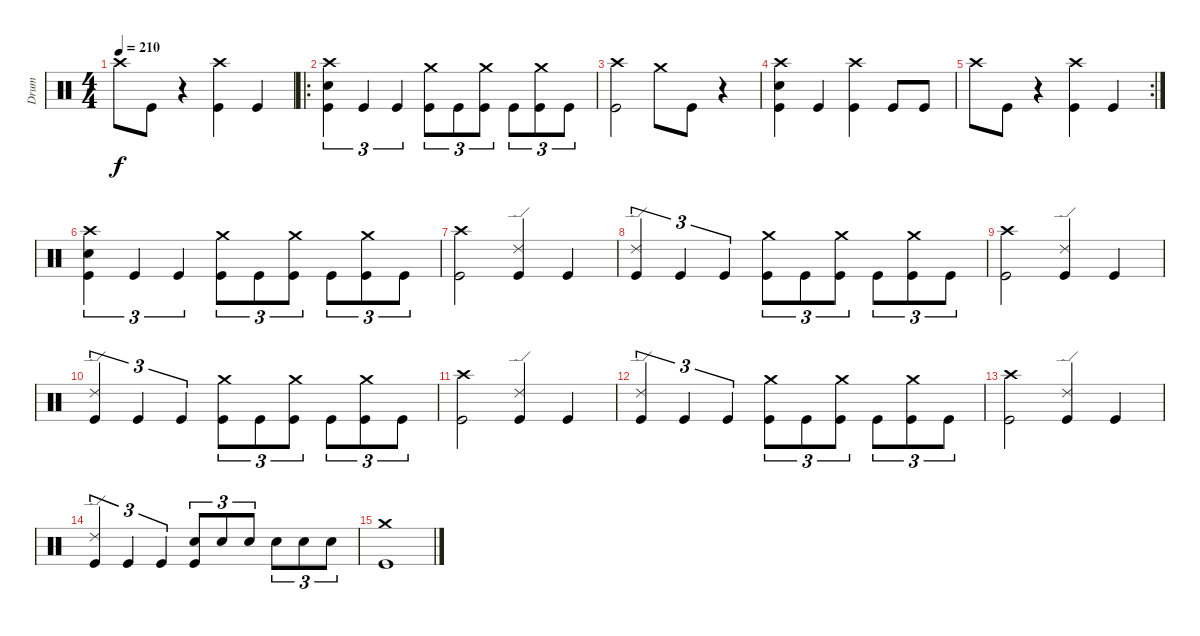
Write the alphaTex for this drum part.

\track ("Drum" "Drum") {instrument percussion}
\staff {score}
\articulation defaults
\ts (4 4)
\tempo 210
\clef neutral
\ks c "Crash high (hit)".8{dy f} "Kick (hit)".8
r.4 ("Crash high (hit)" "Kick (hit)").4 "Kick (hit)".4 |
\ro
("Crash high (hit)" "Snare (hit) 2" "Kick (hit)").4{tu (3 2)} "Kick (hit)".4{tu (3 2)} "Kick (hit)".4{tu (3 2)} ("Crash medium (hit)" "Kick (hit)").8{tu (3 2)} "Kick (hit)".8{tu (3 2)} ("Crash medium (hit)" "Kick (hit)").8{tu (3 2)} "Kick (hit)".8{tu (3 2)} ("Crash medium (hit)" "Kick (hit)").8{tu (3 2)} "Kick (hit)".8{tu (3 2)} |
("Crash high (hit)" "Kick (hit)").2 "Crash medium (hit)".8 "Kick (hit)".8 r.4 |
("Crash high (hit)" "Snare (hit) 2" "Kick (hit)").4 "Kick (hit)".4 ("Crash high (hit)" "Kick (hit)").4 "Kick (hit)".8 "Kick (hit)".8 |
\rc 2 "Crash high (hit)".8 "Kick (hit)".8
r.4 ("Crash high (hit)" "Kick (hit)").4 "Kick (hit)".4 |
("Crash high (hit)" "Snare (hit) 2" "Kick (hit)").4{tu (3 2)} "Kick (hit)".4{tu (3 2)} "Kick (hit)".4{tu (3 2)} ("Crash medium (hit)" "Kick (hit)").8{tu (3 2)} "Kick (hit)".8{tu (3 2)} ("Crash medium (hit)" "Kick (hit)").8{tu (3 2)} "Kick (hit)".8{tu (3 2)} ("Crash medium (hit)" "Kick (hit)").8{tu (3 2)} "Kick (hit)".8{tu (3 2)} |
("Crash high (hit)" "Kick (hit)").2 ("Ride (edge) 2" "Kick (hit)").4 "Kick (hit)".4 |
("Ride (edge) 2" "Kick (hit)").4{tu (3 2)} "Kick (hit)".4{tu (3 2)} "Kick (hit)".4{tu (3 2)} ("Crash medium (hit)" "Kick (hit)").8{tu (3 2)} "Kick (hit)".8{tu (3 2)} ("Crash medium (hit)" "Kick (hit)").8{tu (3 2)} "Kick (hit)".8{tu (3 2)} ("Crash medium (hit)" "Kick (hit)").8{tu (3 2)} "Kick (hit)".8{tu (3 2)} |
("Crash high (hit)" "Kick (hit)").2 ("Ride (edge) 2" "Kick (hit)").4 "Kick (hit)".4 |
("Ride (edge) 2" "Kick (hit)").4{tu (3 2)} "Kick (hit)".4{tu (3 2)} "Kick (hit)".4{tu (3 2)} ("Crash medium (hit)" "Kick (hit)").8{tu (3 2)} "Kick (hit)".8{tu (3 2)} ("Crash medium (hit)" "Kick (hit)").8{tu (3 2)} "Kick (hit)".8{tu (3 2)} ("Crash medium (hit)" "Kick (hit)").8{tu (3 2)} "Kick (hit)".8{tu (3 2)} |
("Crash high (hit)" "Kick (hit)").2 ("Ride (edge) 2" "Kick (hit)").4 "Kick (hit)".4 |
("Ride (edge) 2" "Kick (hit)").4{tu (3 2)} "Kick (hit)".4{tu (3 2)} "Kick (hit)".4{tu (3 2)} ("Crash medium (hit)" "Kick (hit)").8{tu (3 2)} "Kick (hit)".8{tu (3 2)} ("Crash medium (hit)" "Kick (hit)").8{tu (3 2)} "Kick (hit)".8{tu (3 2)} ("Crash medium (hit)" "Kick (hit)").8{tu (3 2)} "Kick (hit)".8{tu (3 2)} |
("Crash high (hit)" "Kick (hit)").2 ("Ride (edge) 2" "Kick (hit)").4 "Kick (hit)".4 |
("Ride (edge) 2" "Kick (hit)").4{tu (3 2)} "Kick (hit)".4{tu (3 2)} "Kick (hit)".4{tu (3 2)} ("Snare (hit) 2" "Kick (hit)").8{tu (3 2)} "Snare (hit) 2".8{tu (3 2)} "Snare (hit) 2".8{tu (3 2)} "Snare (hit) 2".8{tu (3 2)} "Snare (hit) 2".8{tu (3 2)} "Snare (hit) 2".8{tu (3 2)} |
("Crash medium (hit)" "Kick (hit)").1
